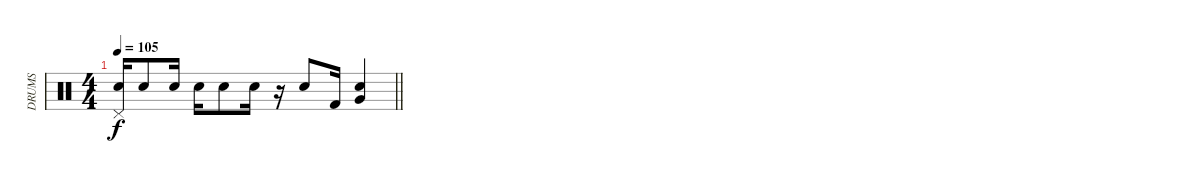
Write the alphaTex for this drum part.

\track ("DRUMS" "DRUMS") {instrument percussion bank 148}
\staff {score}
\articulation defaults
\ts (4 4)
\tempo 105
\clef neutral
\barLineRight lightlight
\ks c
("Pedal Hi-Hat (hit)" "Electric Snare (hit)").16{dy f} "Electric Snare (hit)".8 "Electric Snare (hit)".16 "Electric Snare (hit)".16 "Electric Snare (hit)".8 "Electric Snare (hit)".16 r.16 "Electric Snare (hit)".8 "Kick (hit) 2".16 ("Electric Snare (hit)" "Very Low Tom (hit)").4
